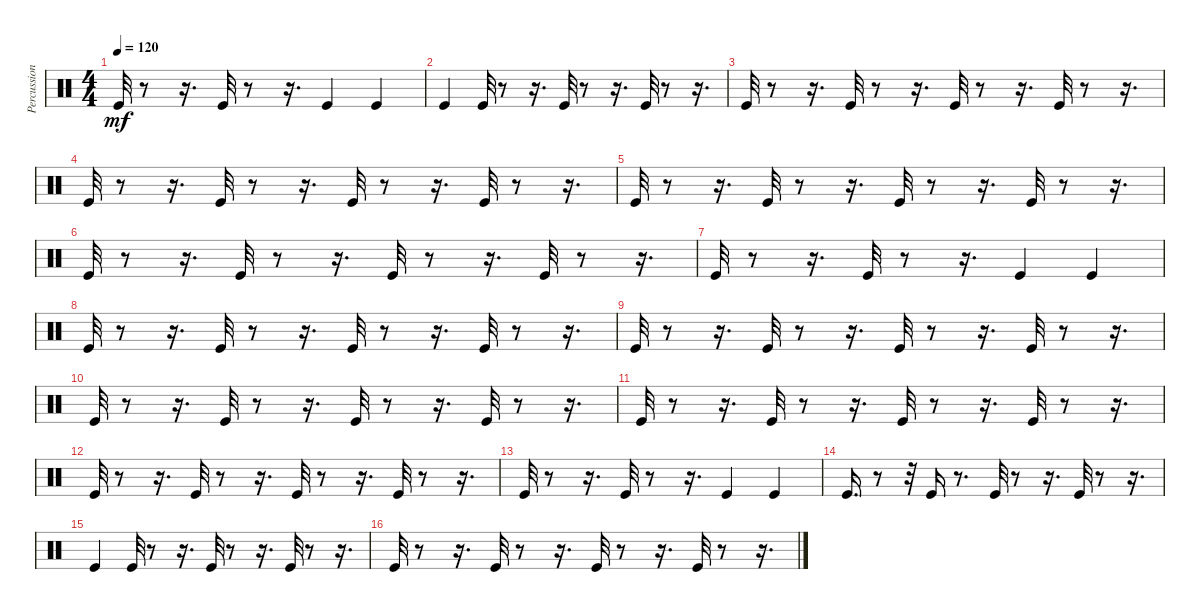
\track ("Percussion" "Percussion") {instrument percussion}
\staff {score}
\articulation defaults
\ts (4 4)
\tempo 120
\clef neutral
\ks c "Kick (hit)".32{dy mf}
r.8 r.16{d} "Kick (hit)".32 r.8 r.16{d} "Kick (hit)".4 "Kick (hit)".4 |
"Kick (hit)".4 "Kick (hit)".32 r.8 r.16{d} "Kick (hit)".32 r.8 r.16{d} "Kick (hit)".32 r.8 r.16{d} |
"Kick (hit)".32 r.8 r.16{d} "Kick (hit)".32 r.8 r.16{d} "Kick (hit)".32 r.8 r.16{d} "Kick (hit)".32 r.8 r.16{d} |
"Kick (hit)".32 r.8 r.16{d} "Kick (hit)".32 r.8 r.16{d} "Kick (hit)".32 r.8 r.16{d} "Kick (hit)".32 r.8 r.16{d} |
"Kick (hit)".32 r.8 r.16{d} "Kick (hit)".32 r.8 r.16{d} "Kick (hit)".32 r.8 r.16{d} "Kick (hit)".32 r.8 r.16{d} |
"Kick (hit)".32 r.8 r.16{d} "Kick (hit)".32 r.8 r.16{d} "Kick (hit)".32 r.8 r.16{d} "Kick (hit)".32 r.8 r.16{d} |
"Kick (hit)".32 r.8 r.16{d} "Kick (hit)".32 r.8 r.16{d} "Kick (hit)".4 "Kick (hit)".4 |
"Kick (hit)".32 r.8 r.16{d} "Kick (hit)".32 r.8 r.16{d} "Kick (hit)".32 r.8 r.16{d} "Kick (hit)".32 r.8 r.16{d} |
"Kick (hit)".32 r.8 r.16{d} "Kick (hit)".32 r.8 r.16{d} "Kick (hit)".32 r.8 r.16{d} "Kick (hit)".32 r.8 r.16{d} |
"Kick (hit)".32 r.8 r.16{d} "Kick (hit)".32 r.8 r.16{d} "Kick (hit)".32 r.8 r.16{d} "Kick (hit)".32 r.8 r.16{d} |
"Kick (hit)".32 r.8 r.16{d} "Kick (hit)".32 r.8 r.16{d} "Kick (hit)".32 r.8 r.16{d} "Kick (hit)".32 r.8 r.16{d} |
"Kick (hit)".32 r.8 r.16{d} "Kick (hit)".32 r.8 r.16{d} "Kick (hit)".32 r.8 r.16{d} "Kick (hit)".32 r.8 r.16{d} |
"Kick (hit)".32 r.8 r.16{d} "Kick (hit)".32 r.8 r.16{d} "Kick (hit)".4 "Kick (hit)".4 |
"Kick (hit)".16{d} r.8 r.32 "Kick (hit)".16 r.8{d} "Kick (hit)".32 r.8 r.16{d} "Kick (hit)".32 r.8 r.16{d} |
"Kick (hit)".4 "Kick (hit)".32 r.8 r.16{d} "Kick (hit)".32 r.8 r.16{d} "Kick (hit)".32 r.8 r.16{d} |
"Kick (hit)".32 r.8 r.16{d} "Kick (hit)".32 r.8 r.16{d} "Kick (hit)".32 r.8 r.16{d} "Kick (hit)".32 r.8 r.16{d}
